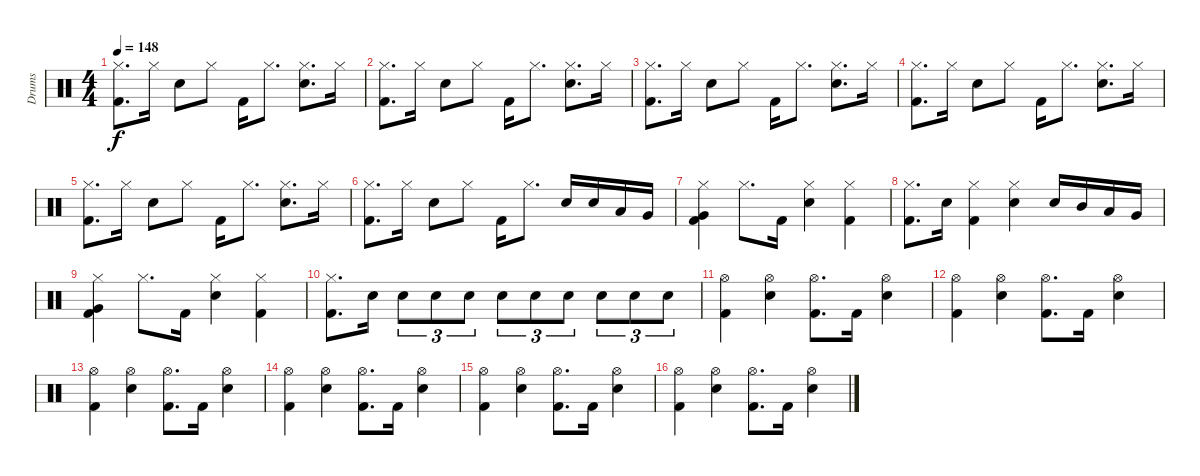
\track ("Drums" "Drums") {instrument percussion}
\staff {score}
\articulation defaults
\ts (4 4)
\tempo 148
\clef neutral
\ks c
("Hi-Hat (closed)" "Kick (hit) 2").8{d dy f} "Hi-Hat (closed)".16 "Electric Snare (hit)".8 "Hi-Hat (closed)".8 "Kick (hit) 2".16 "Hi-Hat (closed)".8{d} ("Hi-Hat (closed)" "Electric Snare (hit)").8{d} "Hi-Hat (closed)".16 |
("Hi-Hat (closed)" "Kick (hit) 2").8{d} "Hi-Hat (closed)".16 "Electric Snare (hit)".8 "Hi-Hat (closed)".8 "Kick (hit) 2".16 "Hi-Hat (closed)".8{d} ("Hi-Hat (closed)" "Electric Snare (hit)").8{d} "Hi-Hat (closed)".16 |
("Hi-Hat (closed)" "Kick (hit) 2").8{d} "Hi-Hat (closed)".16 "Electric Snare (hit)".8 "Hi-Hat (closed)".8 "Kick (hit) 2".16 "Hi-Hat (closed)".8{d} ("Hi-Hat (closed)" "Electric Snare (hit)").8{d} "Hi-Hat (closed)".16 |
("Hi-Hat (closed)" "Kick (hit) 2").8{d} "Hi-Hat (closed)".16 "Electric Snare (hit)".8 "Hi-Hat (closed)".8 "Kick (hit) 2".16 "Hi-Hat (closed)".8{d} ("Hi-Hat (closed)" "Electric Snare (hit)").8{d} "Hi-Hat (closed)".16 |
("Hi-Hat (closed)" "Kick (hit) 2").8{d} "Hi-Hat (closed)".16 "Electric Snare (hit)".8 "Hi-Hat (closed)".8 "Kick (hit) 2".16 "Hi-Hat (closed)".8{d} ("Hi-Hat (closed)" "Electric Snare (hit)").8{d} "Hi-Hat (closed)".16 |
("Hi-Hat (closed)" "Kick (hit) 2").8{d} "Hi-Hat (closed)".16 "Electric Snare (hit)".8 "Hi-Hat (closed)".8 "Kick (hit) 2".16 "Hi-Hat (closed)".8{d} "Electric Snare (hit)".16 "Electric Snare (hit)".16 "Low Tom (hit)".16 "Very Low Tom (hit)".16 |
("Hi-Hat (closed)" "Very Low Tom (hit)" "Kick (hit) 2").4 "Hi-Hat (closed)".8{d} "Kick (hit) 2".16 ("Hi-Hat (closed)" "Electric Snare (hit)").4 ("Hi-Hat (closed)" "Kick (hit) 2").4 |
("Hi-Hat (closed)" "Kick (hit) 2").8{d} "Electric Snare (hit)".16 ("Hi-Hat (closed)" "Kick (hit) 2").4 ("Hi-Hat (closed)" "Electric Snare (hit)").4 "Electric Snare (hit)".16 "Mid Tom (hit)".16 "Low Tom (hit)".16 "Very Low Tom (hit)".16 |
("Hi-Hat (closed)" "Very Low Tom (hit)" "Kick (hit) 2").4 "Hi-Hat (closed)".8{d} "Kick (hit) 2".16 ("Hi-Hat (closed)" "Electric Snare (hit)").4 ("Hi-Hat (closed)" "Kick (hit) 2").4 |
("Hi-Hat (closed)" "Kick (hit) 2").8{d} "Electric Snare (hit)".16 "Electric Snare (hit)".8{tu (3 2)} "Electric Snare (hit)".8{tu (3 2)} "Electric Snare (hit)".8{tu (3 2)} "Electric Snare (hit)".8{tu (3 2)} "Electric Snare (hit)".8{tu (3 2)} "Electric Snare (hit)".8{tu (3 2)} "Electric Snare (hit)".8{tu (3 2)} "Electric Snare (hit)".8{tu (3 2)} "Electric Snare (hit)".8{tu (3 2)} |
("Hi-Hat (open)" "Kick (hit) 2").4 ("Hi-Hat (open)" "Electric Snare (hit)").4 ("Hi-Hat (open)" "Kick (hit) 2").8{d} "Kick (hit) 2".16 ("Hi-Hat (open)" "Electric Snare (hit)").4 |
("Hi-Hat (open)" "Kick (hit) 2").4 ("Hi-Hat (open)" "Electric Snare (hit)").4 ("Hi-Hat (open)" "Kick (hit) 2").8{d} "Kick (hit) 2".16 ("Hi-Hat (open)" "Electric Snare (hit)").4 |
("Hi-Hat (open)" "Kick (hit) 2").4 ("Hi-Hat (open)" "Electric Snare (hit)").4 ("Hi-Hat (open)" "Kick (hit) 2").8{d} "Kick (hit) 2".16 ("Hi-Hat (open)" "Electric Snare (hit)").4 |
("Hi-Hat (open)" "Kick (hit) 2").4 ("Hi-Hat (open)" "Electric Snare (hit)").4 ("Hi-Hat (open)" "Kick (hit) 2").8{d} "Kick (hit) 2".16 ("Hi-Hat (open)" "Electric Snare (hit)").4 |
("Hi-Hat (open)" "Kick (hit) 2").4 ("Hi-Hat (open)" "Electric Snare (hit)").4 ("Hi-Hat (open)" "Kick (hit) 2").8{d} "Kick (hit) 2".16 ("Hi-Hat (open)" "Electric Snare (hit)").4 |
("Hi-Hat (open)" "Kick (hit) 2").4 ("Hi-Hat (open)" "Electric Snare (hit)").4 ("Hi-Hat (open)" "Kick (hit) 2").8{d} "Kick (hit) 2".16 ("Hi-Hat (open)" "Electric Snare (hit)").4
